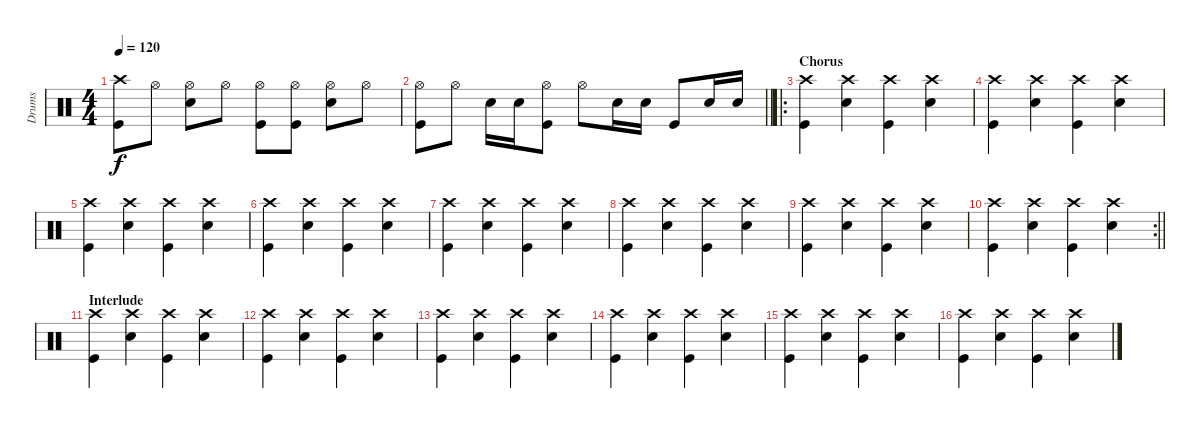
\track ("Drums" "Drums") {instrument percussion}
\staff {score}
\articulation defaults
\ts (4 4)
\tempo 120
\clef neutral
\ks c
("Crash high (hit)" "Kick (hit)").8{dy f} "Hi-Hat (open)".8 ("Hi-Hat (open)" "Snare (hit) 2").8 "Hi-Hat (open)".8 ("Hi-Hat (open)" "Kick (hit)").8 ("Hi-Hat (open)" "Kick (hit)").8 ("Hi-Hat (open)" "Snare (hit) 2").8 "Hi-Hat (open)".8 |
\barLineRight lightlight
("Hi-Hat (open)" "Kick (hit)").8 "Hi-Hat (open)".8 "Snare (hit) 2".16 "Snare (hit) 2".16 ("Hi-Hat (open)" "Kick (hit)").8 "Hi-Hat (open)".8 "Snare (hit) 2".16 "Snare (hit) 2".16 "Kick (hit)".8 "Snare (hit) 2".16 "Snare (hit) 2".16 |
\ro
\section ("" "Chorus")
("Crash high (hit)" "Kick (hit)").4 ("Crash high (hit)" "Snare (hit) 2").4 ("Crash high (hit)" "Kick (hit)").4 ("Crash high (hit)" "Snare (hit) 2").4 |
("Crash high (hit)" "Kick (hit)").4 ("Crash high (hit)" "Snare (hit) 2").4 ("Crash high (hit)" "Kick (hit)").4 ("Crash high (hit)" "Snare (hit) 2").4 |
("Crash high (hit)" "Kick (hit)").4 ("Crash high (hit)" "Snare (hit) 2").4 ("Crash high (hit)" "Kick (hit)").4 ("Crash high (hit)" "Snare (hit) 2").4 |
("Crash high (hit)" "Kick (hit)").4 ("Crash high (hit)" "Snare (hit) 2").4 ("Crash high (hit)" "Kick (hit)").4 ("Crash high (hit)" "Snare (hit) 2").4 |
("Crash high (hit)" "Kick (hit)").4 ("Crash high (hit)" "Snare (hit) 2").4 ("Crash high (hit)" "Kick (hit)").4 ("Crash high (hit)" "Snare (hit) 2").4 |
("Crash high (hit)" "Kick (hit)").4 ("Crash high (hit)" "Snare (hit) 2").4 ("Crash high (hit)" "Kick (hit)").4 ("Crash high (hit)" "Snare (hit) 2").4 |
("Crash high (hit)" "Kick (hit)").4 ("Crash high (hit)" "Snare (hit) 2").4 ("Crash high (hit)" "Kick (hit)").4 ("Crash high (hit)" "Snare (hit) 2").4 |
\rc 2
\barLineRight lightlight
("Crash high (hit)" "Kick (hit)").4 ("Crash high (hit)" "Snare (hit) 2").4 ("Crash high (hit)" "Kick (hit)").4 ("Crash high (hit)" "Snare (hit) 2").4 |
\section ("" "Interlude")
("Crash high (hit)" "Kick (hit)").4 ("Crash high (hit)" "Snare (hit) 2").4 ("Crash high (hit)" "Kick (hit)").4 ("Crash high (hit)" "Snare (hit) 2").4 |
("Crash high (hit)" "Kick (hit)").4 ("Crash high (hit)" "Snare (hit) 2").4 ("Crash high (hit)" "Kick (hit)").4 ("Crash high (hit)" "Snare (hit) 2").4 |
("Crash high (hit)" "Kick (hit)").4 ("Crash high (hit)" "Snare (hit) 2").4 ("Crash high (hit)" "Kick (hit)").4 ("Crash high (hit)" "Snare (hit) 2").4 |
("Crash high (hit)" "Kick (hit)").4 ("Crash high (hit)" "Snare (hit) 2").4 ("Crash high (hit)" "Kick (hit)").4 ("Crash high (hit)" "Snare (hit) 2").4 |
("Crash high (hit)" "Kick (hit)").4 ("Crash high (hit)" "Snare (hit) 2").4 ("Crash high (hit)" "Kick (hit)").4 ("Crash high (hit)" "Snare (hit) 2").4 |
("Crash high (hit)" "Kick (hit)").4 ("Crash high (hit)" "Snare (hit) 2").4 ("Crash high (hit)" "Kick (hit)").4 ("Crash high (hit)" "Snare (hit) 2").4
